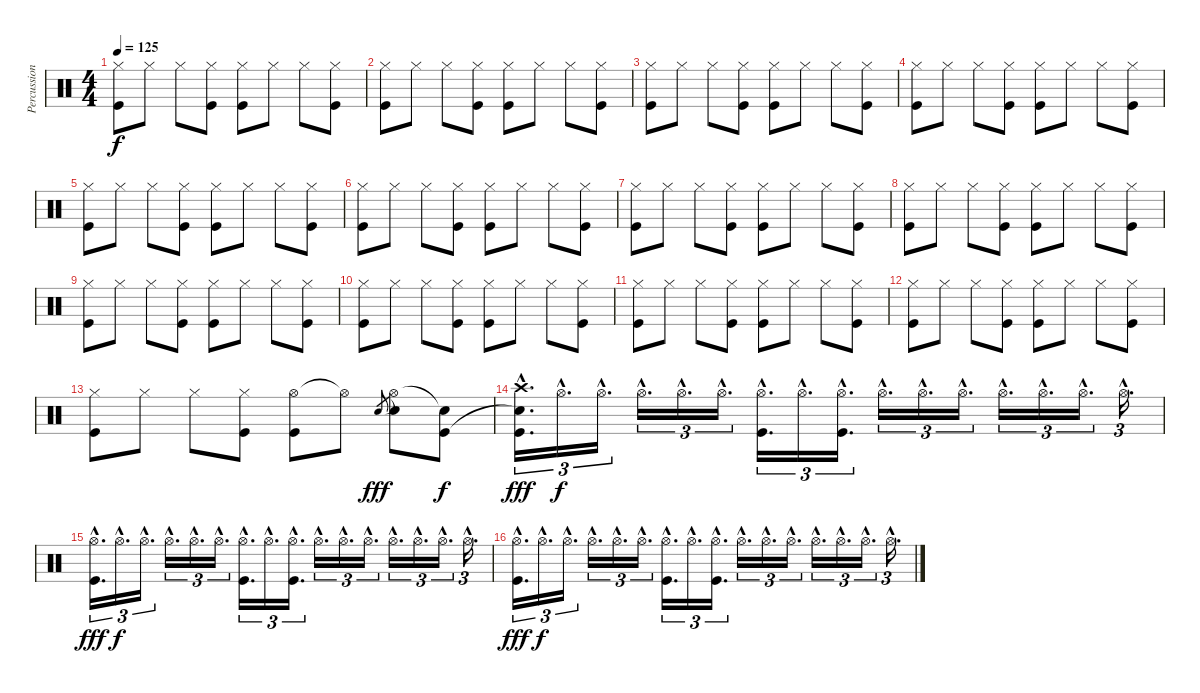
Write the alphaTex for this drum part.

\track ("Percussion" "Percussion") {instrument percussion}
\staff {score}
\articulation defaults
\ts (4 4)
\tempo 125
\clef neutral
\ks c
("Hi-Hat (closed)" "Kick (hit)").8{dy f} "Hi-Hat (closed)".8 "Hi-Hat (closed)".8 ("Hi-Hat (closed)" "Kick (hit)").8 ("Hi-Hat (closed)" "Kick (hit)").8 "Hi-Hat (closed)".8 "Hi-Hat (closed)".8 ("Hi-Hat (closed)" "Kick (hit)").8 |
("Hi-Hat (closed)" "Kick (hit)").8 "Hi-Hat (closed)".8 "Hi-Hat (closed)".8 ("Hi-Hat (closed)" "Kick (hit)").8 ("Hi-Hat (closed)" "Kick (hit)").8 "Hi-Hat (closed)".8 "Hi-Hat (closed)".8 ("Hi-Hat (closed)" "Kick (hit)").8 |
("Hi-Hat (closed)" "Kick (hit)").8 "Hi-Hat (closed)".8 "Hi-Hat (closed)".8 ("Hi-Hat (closed)" "Kick (hit)").8 ("Hi-Hat (closed)" "Kick (hit)").8 "Hi-Hat (closed)".8 "Hi-Hat (closed)".8 ("Hi-Hat (closed)" "Kick (hit)").8 |
("Hi-Hat (closed)" "Kick (hit)").8 "Hi-Hat (closed)".8 "Hi-Hat (closed)".8 ("Hi-Hat (closed)" "Kick (hit)").8 ("Hi-Hat (closed)" "Kick (hit)").8 "Hi-Hat (closed)".8 "Hi-Hat (closed)".8 ("Hi-Hat (closed)" "Kick (hit)").8 |
("Hi-Hat (closed)" "Kick (hit)").8 "Hi-Hat (closed)".8 "Hi-Hat (closed)".8 ("Hi-Hat (closed)" "Kick (hit)").8 ("Hi-Hat (closed)" "Kick (hit)").8 "Hi-Hat (closed)".8 "Hi-Hat (closed)".8 ("Hi-Hat (closed)" "Kick (hit)").8 |
("Hi-Hat (closed)" "Kick (hit)").8 "Hi-Hat (closed)".8 "Hi-Hat (closed)".8 ("Hi-Hat (closed)" "Kick (hit)").8 ("Hi-Hat (closed)" "Kick (hit)").8 "Hi-Hat (closed)".8 "Hi-Hat (closed)".8 ("Hi-Hat (closed)" "Kick (hit)").8 |
("Hi-Hat (closed)" "Kick (hit)").8 "Hi-Hat (closed)".8 "Hi-Hat (closed)".8 ("Hi-Hat (closed)" "Kick (hit)").8 ("Hi-Hat (closed)" "Kick (hit)").8 "Hi-Hat (closed)".8 "Hi-Hat (closed)".8 ("Hi-Hat (closed)" "Kick (hit)").8 |
("Hi-Hat (closed)" "Kick (hit)").8 "Hi-Hat (closed)".8 "Hi-Hat (closed)".8 ("Hi-Hat (closed)" "Kick (hit)").8 ("Hi-Hat (closed)" "Kick (hit)").8 "Hi-Hat (closed)".8 "Hi-Hat (closed)".8 ("Hi-Hat (closed)" "Kick (hit)").8 |
("Hi-Hat (closed)" "Kick (hit)").8 "Hi-Hat (closed)".8 "Hi-Hat (closed)".8 ("Hi-Hat (closed)" "Kick (hit)").8 ("Hi-Hat (closed)" "Kick (hit)").8 "Hi-Hat (closed)".8 "Hi-Hat (closed)".8 ("Hi-Hat (closed)" "Kick (hit)").8 |
("Hi-Hat (closed)" "Kick (hit)").8 "Hi-Hat (closed)".8 "Hi-Hat (closed)".8 ("Hi-Hat (closed)" "Kick (hit)").8 ("Hi-Hat (closed)" "Kick (hit)").8 "Hi-Hat (closed)".8 "Hi-Hat (closed)".8 ("Hi-Hat (closed)" "Kick (hit)").8 |
("Hi-Hat (closed)" "Kick (hit)").8 "Hi-Hat (closed)".8 "Hi-Hat (closed)".8 ("Hi-Hat (closed)" "Kick (hit)").8 ("Hi-Hat (closed)" "Kick (hit)").8 "Hi-Hat (closed)".8 "Hi-Hat (closed)".8 ("Hi-Hat (closed)" "Kick (hit)").8 |
("Hi-Hat (closed)" "Kick (hit)").8 "Hi-Hat (closed)".8 "Hi-Hat (closed)".8 ("Hi-Hat (closed)" "Kick (hit)").8 ("Hi-Hat (closed)" "Kick (hit)").8 "Hi-Hat (closed)".8 "Hi-Hat (closed)".8 ("Hi-Hat (closed)" "Kick (hit)").8 |
("Hi-Hat (closed)" "Kick (hit)").8 "Hi-Hat (closed)".8 "Hi-Hat (closed)".8 ("Hi-Hat (closed)" "Kick (hit)").8 ("Hi-Hat (open)" "Kick (hit)").8 "Hi-Hat (open)"{t}.8 "Electric Snare (hit)".8{gr dy fff} ("Hi-Hat (open)"{t} "Electric Snare (hit)").8 ("Electric Snare (hit)"{t} "Kick (hit)").8{dy f} |
("Crash high (hit)"{hac} "Snare (hit)"{hac t} "Kick (hit)"{hac}).16{d tu (3 2) dy fff} "Hi-Hat (open)"{hac}.16{d tu (3 2) dy f} "Hi-Hat (open)"{hac}.16{d tu (3 2)} "Hi-Hat (open)"{hac}.16{d tu (3 2)} "Hi-Hat (open)"{hac}.16{d tu (3 2)} "Hi-Hat (open)"{hac}.16{d tu (3 2)} ("Hi-Hat (open)"{hac} "Kick (hit)"{hac}).16{d tu (3 2)} "Hi-Hat (open)"{hac}.16{d tu (3 2)} ("Hi-Hat (open)"{hac} "Kick (hit)"{hac}).16{d tu (3 2)} "Hi-Hat (open)"{hac}.16{d tu (3 2)} "Hi-Hat (open)"{hac}.16{d tu (3 2)} "Hi-Hat (open)"{hac}.16{d tu (3 2)} "Hi-Hat (open)"{hac}.16{d tu (3 2)} "Hi-Hat (open)"{hac}.16{d tu (3 2)} "Hi-Hat (open)"{hac}.16{d tu (3 2)} "Hi-Hat (open)"{hac}.16{d tu (3 2)} |
("Hi-Hat (open)"{hac} "Kick (hit)"{hac}).16{d tu (3 2) dy fff} "Hi-Hat (open)"{hac}.16{d tu (3 2) dy f} "Hi-Hat (open)"{hac}.16{d tu (3 2)} "Hi-Hat (open)"{hac}.16{d tu (3 2)} "Hi-Hat (open)"{hac}.16{d tu (3 2)} "Hi-Hat (open)"{hac}.16{d tu (3 2)} ("Hi-Hat (open)"{hac} "Kick (hit)"{hac}).16{d tu (3 2)} "Hi-Hat (open)"{hac}.16{d tu (3 2)} ("Hi-Hat (open)"{hac} "Kick (hit)"{hac}).16{d tu (3 2)} "Hi-Hat (open)"{hac}.16{d tu (3 2)} "Hi-Hat (open)"{hac}.16{d tu (3 2)} "Hi-Hat (open)"{hac}.16{d tu (3 2)} "Hi-Hat (open)"{hac}.16{d tu (3 2)} "Hi-Hat (open)"{hac}.16{d tu (3 2)} "Hi-Hat (open)"{hac}.16{d tu (3 2)} "Hi-Hat (open)"{hac}.16{d tu (3 2)} |
("Hi-Hat (open)"{hac} "Kick (hit)"{hac}).16{d tu (3 2) dy fff} "Hi-Hat (open)"{hac}.16{d tu (3 2) dy f} "Hi-Hat (open)"{hac}.16{d tu (3 2)} "Hi-Hat (open)"{hac}.16{d tu (3 2)} "Hi-Hat (open)"{hac}.16{d tu (3 2)} "Hi-Hat (open)"{hac}.16{d tu (3 2)} ("Hi-Hat (open)"{hac} "Kick (hit)"{hac}).16{d tu (3 2)} "Hi-Hat (open)"{hac}.16{d tu (3 2)} ("Hi-Hat (open)"{hac} "Kick (hit)"{hac}).16{d tu (3 2)} "Hi-Hat (open)"{hac}.16{d tu (3 2)} "Hi-Hat (open)"{hac}.16{d tu (3 2)} "Hi-Hat (open)"{hac}.16{d tu (3 2)} "Hi-Hat (open)"{hac}.16{d tu (3 2)} "Hi-Hat (open)"{hac}.16{d tu (3 2)} "Hi-Hat (open)"{hac}.16{d tu (3 2)} "Hi-Hat (open)"{hac}.16{d tu (3 2)}
